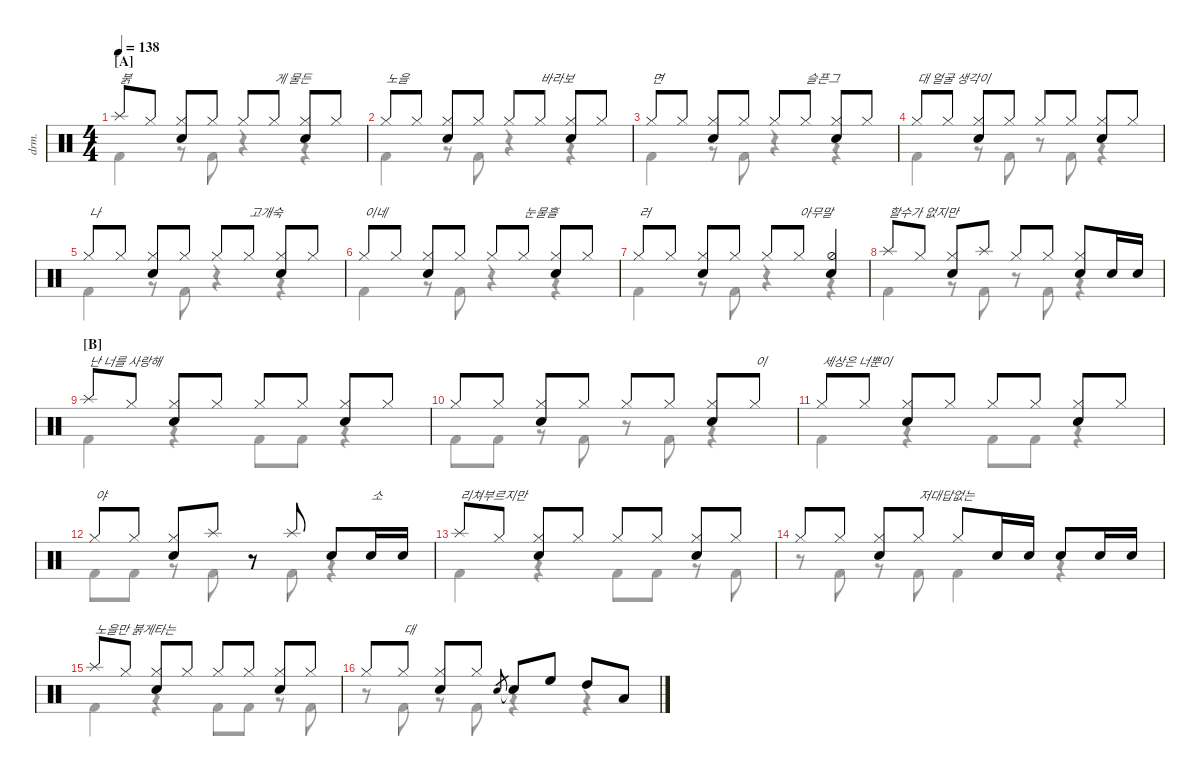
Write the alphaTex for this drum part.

\defaultSystemsLayout 4
\hideDynamics
\bracketExtendMode nobrackets
\track ("Drumkit" "drm.") {instrument percussion}
\staff {score}
\articulation defaults
\voice
\ts (4 4)
\section ("A" "")
\tempo 138
\clef neutral
\ks c "Splash (hit)".8{txt "붉" dy mf beam Up} "Hi-Hat (closed)".8{beam Up}
("Hi-Hat (closed)" "Snare (hit) 2").8{beam Up} "Hi-Hat (closed)".8{beam Up} "Hi-Hat (closed)".8{beam Up} "Hi-Hat (closed)".8{txt "게 물든" beam Up} ("Hi-Hat (closed)" "Snare (hit) 2").8{beam Up} "Hi-Hat (closed)".8{beam Up} |
"Hi-Hat (closed)".8{txt "노을" beam Up} "Hi-Hat (closed)".8{beam Up} ("Hi-Hat (closed)" "Snare (hit) 2").8{beam Up} "Hi-Hat (closed)".8{beam Up} "Hi-Hat (closed)".8{beam Up} "Hi-Hat (closed)".8{txt "바라보" beam Up} ("Hi-Hat (closed)" "Snare (hit) 2").8{beam Up} "Hi-Hat (closed)".8{beam Up} |
"Hi-Hat (closed)".8{txt "면" beam Up} "Hi-Hat (closed)".8{beam Up} ("Hi-Hat (closed)" "Snare (hit) 2").8{beam Up} "Hi-Hat (closed)".8{beam Up} "Hi-Hat (closed)".8{beam Up} "Hi-Hat (closed)".8{txt "슬픈그" beam Up} ("Hi-Hat (closed)" "Snare (hit) 2").8{beam Up} "Hi-Hat (closed)".8{beam Up} |
"Hi-Hat (closed)".8{txt "대 얼굴 생각이" beam Up} "Hi-Hat (closed)".8{beam Up} ("Hi-Hat (closed)" "Snare (hit) 2").8{beam Up} "Hi-Hat (closed)".8{beam Up} "Hi-Hat (closed)".8{beam Up} "Hi-Hat (closed)".8{beam Up} ("Hi-Hat (closed)" "Snare (hit) 2").8{beam Up} "Hi-Hat (closed)".8{beam Up} |
"Hi-Hat (closed)".8{txt "나" beam Up} "Hi-Hat (closed)".8{beam Up} ("Hi-Hat (closed)" "Snare (hit) 2").8{beam Up} "Hi-Hat (closed)".8{beam Up} "Hi-Hat (closed)".8{beam Up} "Hi-Hat (closed)".8{txt "고개숙" beam Up} ("Hi-Hat (closed)" "Snare (hit) 2").8{beam Up} "Hi-Hat (closed)".8{beam Up} |
"Hi-Hat (closed)".8{txt "이네" beam Up} "Hi-Hat (closed)".8{beam Up} ("Hi-Hat (closed)" "Snare (hit) 2").8{beam Up} "Hi-Hat (closed)".8{beam Up} "Hi-Hat (closed)".8{beam Up} "Hi-Hat (closed)".8{txt "눈물흘" beam Up} ("Hi-Hat (closed)" "Snare (hit) 2").8{beam Up} "Hi-Hat (closed)".8{beam Up} |
"Hi-Hat (closed)".8{txt "러" beam Up} "Hi-Hat (closed)".8{beam Up} ("Hi-Hat (closed)" "Snare (hit) 2").8{beam Up} "Hi-Hat (closed)".8{beam Up} "Hi-Hat (closed)".8{beam Up} "Hi-Hat (closed)".8{txt "아무말" beam Up} ("Hi-Hat (half)" "Snare (hit) 2").4{beam Up} |
"Splash (hit)".8{txt "할수가 없지만" beam Up} "Hi-Hat (closed)".8{beam Up} ("Hi-Hat (closed)" "Snare (hit) 2").8{beam Up} "Splash (hit)".8{beam Up} "Hi-Hat (closed)".8{beam Up} "Hi-Hat (closed)".8{beam Up} ("Hi-Hat (closed)" "Snare (hit) 2").8{beam Up} "Snare (hit) 2".16{beam Up} "Snare (hit) 2".16{beam Up} |
\section ("B" "")
"Splash (hit)".8{txt "난 너를 사랑해" beam Up} "Hi-Hat (closed)".8{beam Up} ("Hi-Hat (closed)" "Snare (hit) 2").8{beam Up} "Hi-Hat (closed)".8{beam Up} "Hi-Hat (closed)".8{beam Up} "Hi-Hat (closed)".8{beam Up} ("Hi-Hat (closed)" "Snare (hit) 2").8{beam Up} "Hi-Hat (closed)".8{beam Up} |
"Hi-Hat (closed)".8{beam Up} "Hi-Hat (closed)".8{beam Up} ("Hi-Hat (closed)" "Snare (hit) 2").8{beam Up} "Hi-Hat (closed)".8{beam Up} "Hi-Hat (closed)".8{beam Up} "Hi-Hat (closed)".8{beam Up} ("Hi-Hat (closed)" "Snare (hit) 2").8{beam Up} "Hi-Hat (closed)".8{txt "이" beam Up} |
"Hi-Hat (closed)".8{txt "세상은 너뿐이" beam Up} "Hi-Hat (closed)".8{beam Up} ("Hi-Hat (closed)" "Snare (hit) 2").8{beam Up} "Hi-Hat (closed)".8{beam Up} "Hi-Hat (closed)".8{beam Up} "Hi-Hat (closed)".8{beam Up} ("Hi-Hat (closed)" "Snare (hit) 2").8{beam Up} "Hi-Hat (closed)".8{beam Up} |
"Hi-Hat (closed)".8{txt "야" beam Up} "Hi-Hat (closed)".8{beam Up} ("Hi-Hat (closed)" "Snare (hit) 2").8{beam Up} "Splash (hit)".8{beam Up} r.8{beam Up} "Splash (hit)".8{beam Up} "Snare (hit) 2".8{beam Up} "Snare (hit) 2".16{txt "소" beam Up} "Snare (hit) 2".16{beam Up} |
"Splash (hit)".8{txt "리쳐부르지만" beam Up} "Hi-Hat (closed)".8{beam Up} ("Hi-Hat (closed)" "Snare (hit) 2").8{beam Up} "Hi-Hat (closed)".8{beam Up} "Hi-Hat (closed)".8{beam Up} "Hi-Hat (closed)".8{beam Up} ("Hi-Hat (closed)" "Snare (hit) 2").8{beam Up} "Hi-Hat (closed)".8{beam Up} |
"Hi-Hat (closed)".8{beam Up} "Hi-Hat (closed)".8{beam Up} ("Hi-Hat (closed)" "Snare (hit) 2").8{beam Up} "Hi-Hat (closed)".8{txt "저대답없는" beam Up} "Hi-Hat (closed)".8{beam Up} "Snare (hit) 2".16{beam Up} "Snare (hit) 2".16{beam Up} "Snare (hit) 2".8{beam Up} "Snare (hit) 2".16{beam Up} "Snare (hit) 2".16{beam Up} |
"Splash (hit)".8{txt "노을만 붉게타는" beam Up} "Hi-Hat (closed)".8{beam Up} ("Hi-Hat (closed)" "Snare (hit) 2").8{beam Up} "Hi-Hat (closed)".8{beam Up} "Hi-Hat (closed)".8{beam Up} "Hi-Hat (closed)".8{beam Up} ("Hi-Hat (closed)" "Snare (hit) 2").8{beam Up} "Hi-Hat (closed)".8{beam Up} |
"Hi-Hat (closed)".8{beam Up} "Hi-Hat (closed)".8{txt "대" beam Up} ("Hi-Hat (closed)" "Snare (hit) 2").8{beam Up} "Hi-Hat (closed)".8{beam Up} "Snare (hit) 2".8{gr beam Up} "Snare (hit) 2"{t}.8{beam Up} "High Floor Tom (hit)".8{beam Up} "High Tom (hit)".8{beam Up} "Low Tom (hit)".8{beam Up}
\voice
\clef neutral
\ottava regular
\simile none
\ks c
|
|
|
|
|
|
|
|
|
|
|
|
|
|
|
\voice
\clef neutral
\ottava regular
\simile none
\ks c "Kick (hit) 2".4{dy mf beam Down}
r.8{beam Down} "Kick (hit) 2".8{beam Down} r.4{beam Down} r.4{beam Down} |
"Kick (hit) 2".4{beam Down} r.8{beam Down} "Kick (hit) 2".8{beam Down} r.4{beam Down} r.4{beam Down} |
"Kick (hit) 2".4{beam Down} r.8{beam Down} "Kick (hit) 2".8{beam Down} r.4{beam Down} r.4{beam Down} |
"Kick (hit) 2".4{beam Down} r.8{beam Down} "Kick (hit) 2".8{beam Down} r.8{beam Down} "Kick (hit) 2".8{beam Down} r.4{beam Down} |
"Kick (hit) 2".4{beam Down} r.8{beam Down} "Kick (hit) 2".8{beam Down} r.4{beam Down} r.4{beam Down} |
"Kick (hit) 2".4{beam Down} r.8{beam Down} "Kick (hit) 2".8{beam Down} r.4{beam Down} r.4{beam Down} |
"Kick (hit) 2".4{beam Down} r.8{beam Down} "Kick (hit) 2".8{beam Down} r.4{beam Down} r.4{beam Down} |
"Kick (hit) 2".4{beam Down} r.8{beam Down} "Kick (hit) 2".8{beam Down} r.8{beam Down} "Kick (hit) 2".8{beam Down} r.4{beam Down} |
"Kick (hit) 2".4{beam Down} r.4{beam Down} "Kick (hit) 2".8{beam Down} "Kick (hit) 2".8{beam Down} r.4{beam Down} |
"Kick (hit) 2".8{beam Down} "Kick (hit) 2".8{beam Down} r.8{beam Down} "Kick (hit) 2".8{beam Down} r.8{beam Down} "Kick (hit) 2".8{beam Down} r.4{beam Down} |
"Kick (hit) 2".4{beam Down} r.4{beam Down} "Kick (hit) 2".8{beam Down} "Kick (hit) 2".8{beam Down} r.4{beam Down} |
"Kick (hit) 2".8{beam Down} "Kick (hit) 2".8{beam Down} r.8{beam Down} "Kick (hit) 2".8{beam Down} r.8{beam Down} "Kick (hit) 2".8{beam Down} r.4{beam Down} |
"Kick (hit) 2".4{beam Down} r.4{beam Down} "Kick (hit) 2".8{beam Down} "Kick (hit) 2".8{beam Down} r.8{beam Down} "Kick (hit) 2".8{beam Down} |
r.8{beam Down} "Kick (hit) 2".8{beam Down} r.8{beam Down} "Kick (hit) 2".8{beam Down} "Kick (hit) 2".4{beam Down} r.4{beam Down} |
"Kick (hit) 2".4{beam Down} r.4{beam Down} "Kick (hit) 2".8{beam Down} "Kick (hit) 2".8{beam Down} r.8{beam Down} "Kick (hit) 2".8{beam Down} |
r.8{beam Down} "Kick (hit) 2".8{beam Down} r.8{beam Down} "Kick (hit) 2".8{beam Down} r.4{beam Down} r.4{beam Down}
